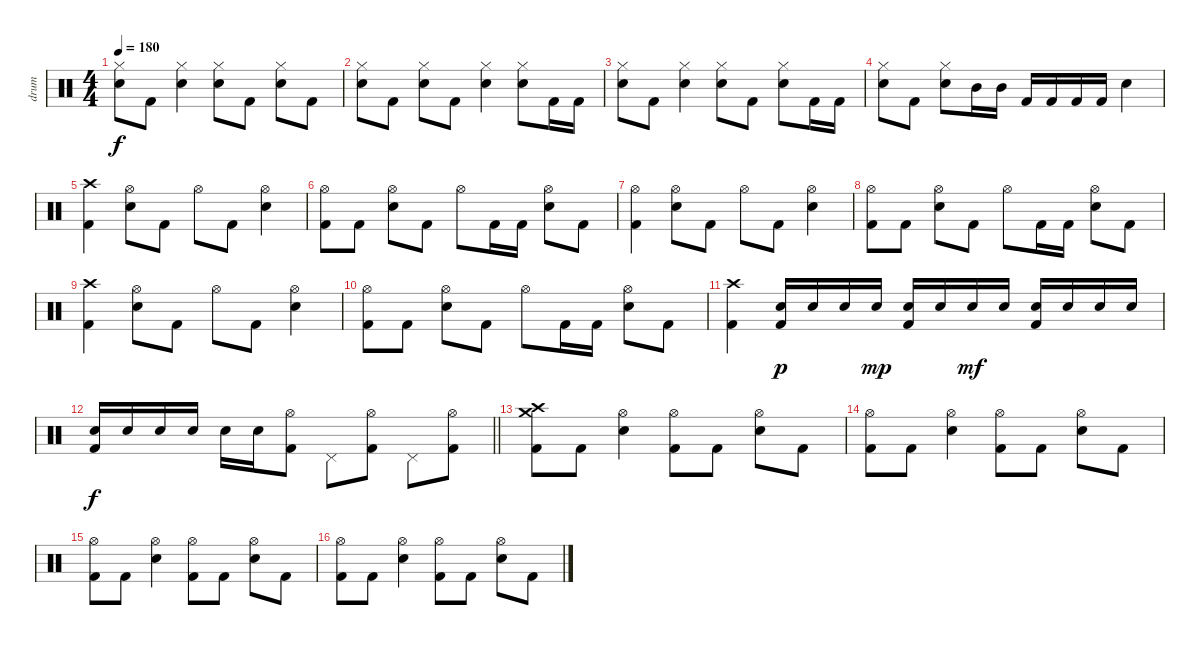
\track ("drum" "drum") {instrument percussion}
\staff {score}
\articulation defaults
\ts (4 4)
\tempo 180
\clef neutral
\ks c
("Hi-Hat (closed)" "Snare (hit) 2").8{dy f} "Kick (hit) 2".8 ("Hi-Hat (closed)" "Snare (hit) 2").4 ("Hi-Hat (closed)" "Snare (hit) 2").8 "Kick (hit) 2".8 ("Hi-Hat (closed)" "Snare (hit) 2").8 "Kick (hit) 2".8 |
("Hi-Hat (closed)" "Snare (hit) 2").8 "Kick (hit) 2".8 ("Hi-Hat (closed)" "Snare (hit) 2").8 "Kick (hit) 2".8 ("Hi-Hat (closed)" "Snare (hit) 2").4 ("Hi-Hat (closed)" "Snare (hit) 2").8 "Kick (hit) 2".16 "Kick (hit) 2".16 |
("Hi-Hat (closed)" "Snare (hit) 2").8 "Kick (hit) 2".8 ("Hi-Hat (closed)" "Snare (hit) 2").4 ("Hi-Hat (closed)" "Snare (hit) 2").8 "Kick (hit) 2".8 ("Hi-Hat (closed)" "Snare (hit) 2").8 "Kick (hit) 2".16 "Kick (hit) 2".16 |
("Hi-Hat (closed)" "Snare (hit) 2").8 "Kick (hit) 2".8 ("Hi-Hat (closed)" "Snare (hit) 2").8 "Mid Tom (hit)".16 "Mid Tom (hit)".16 "Kick (hit) 2".16 "Kick (hit) 2".16 "Kick (hit) 2".16 "Kick (hit) 2".16 "Snare (hit) 2".4 |
("Crash high (hit)" "Kick (hit) 2").4 ("Hi-Hat (open)" "Snare (hit) 2").8 "Kick (hit) 2".8 "Hi-Hat (open)".8 "Kick (hit) 2".8 ("Hi-Hat (open)" "Snare (hit) 2").4 |
("Hi-Hat (open)" "Kick (hit) 2").8 "Kick (hit) 2".8 ("Hi-Hat (open)" "Snare (hit) 2").8 "Kick (hit) 2".8 "Hi-Hat (open)".8 "Kick (hit) 2".16 "Kick (hit) 2".16 ("Hi-Hat (open)" "Snare (hit) 2").8 "Kick (hit) 2".8 |
("Hi-Hat (open)" "Kick (hit) 2").4 ("Hi-Hat (open)" "Snare (hit) 2").8 "Kick (hit) 2".8 "Hi-Hat (open)".8 "Kick (hit) 2".8 ("Hi-Hat (open)" "Snare (hit) 2").4 |
("Hi-Hat (open)" "Kick (hit) 2").8 "Kick (hit) 2".8 ("Hi-Hat (open)" "Snare (hit) 2").8 "Kick (hit) 2".8 "Hi-Hat (open)".8 "Kick (hit) 2".16 "Kick (hit) 2".16 ("Hi-Hat (open)" "Snare (hit) 2").8 "Kick (hit) 2".8 |
("Crash high (hit)" "Kick (hit) 2").4 ("Hi-Hat (open)" "Snare (hit) 2").8 "Kick (hit) 2".8 "Hi-Hat (open)".8 "Kick (hit) 2".8 ("Hi-Hat (open)" "Snare (hit) 2").4 |
("Hi-Hat (open)" "Kick (hit) 2").8 "Kick (hit) 2".8 ("Hi-Hat (open)" "Snare (hit) 2").8 "Kick (hit) 2".8 "Hi-Hat (open)".8 "Kick (hit) 2".16 "Kick (hit) 2".16 ("Hi-Hat (open)" "Snare (hit) 2").8 "Kick (hit) 2".8 |
("Crash high (hit)" "Kick (hit) 2").4 ("Snare (hit) 2" "Kick (hit) 2").16{dy p} "Snare (hit) 2".16 "Snare (hit) 2".16 "Snare (hit) 2".16{dy mp} ("Snare (hit) 2" "Kick (hit) 2").16 "Snare (hit) 2".16 "Snare (hit) 2".16{dy mf} "Snare (hit) 2".16 ("Snare (hit) 2" "Kick (hit) 2").16 "Snare (hit) 2".16 "Snare (hit) 2".16 "Snare (hit) 2".16 |
\barLineRight lightlight
("Snare (hit) 2" "Kick (hit) 2").16{dy f} "Snare (hit) 2".16 "Snare (hit) 2".16 "Snare (hit) 2".16 "Snare (hit) 2".16 "Snare (hit) 2".16 ("Hi-Hat (open)" "Kick (hit) 2").8 "Pedal Hi-Hat (hit)".8 ("Hi-Hat (open)" "Kick (hit) 2").8 "Pedal Hi-Hat (hit)".8 ("Hi-Hat (open)" "Kick (hit) 2").8 |
("Crash medium (hit)" "Crash high (hit)" "Kick (hit) 2").8 "Kick (hit) 2".8 ("Hi-Hat (open)" "Snare (hit) 2").4 ("Hi-Hat (open)" "Kick (hit) 2").8 "Kick (hit) 2".8 ("Hi-Hat (open)" "Snare (hit) 2").8 "Kick (hit) 2".8 |
("Hi-Hat (open)" "Kick (hit) 2").8 "Kick (hit) 2".8 ("Hi-Hat (open)" "Snare (hit) 2").4 ("Hi-Hat (open)" "Kick (hit) 2").8 "Kick (hit) 2".8 ("Hi-Hat (open)" "Snare (hit) 2").8 "Kick (hit) 2".8 |
("Hi-Hat (open)" "Kick (hit) 2").8 "Kick (hit) 2".8 ("Hi-Hat (open)" "Snare (hit) 2").4 ("Hi-Hat (open)" "Kick (hit) 2").8 "Kick (hit) 2".8 ("Hi-Hat (open)" "Snare (hit) 2").8 "Kick (hit) 2".8 |
("Hi-Hat (open)" "Kick (hit) 2").8 "Kick (hit) 2".8 ("Hi-Hat (open)" "Snare (hit) 2").4 ("Hi-Hat (open)" "Kick (hit) 2").8 "Kick (hit) 2".8 ("Hi-Hat (open)" "Snare (hit) 2").8 "Kick (hit) 2".8
